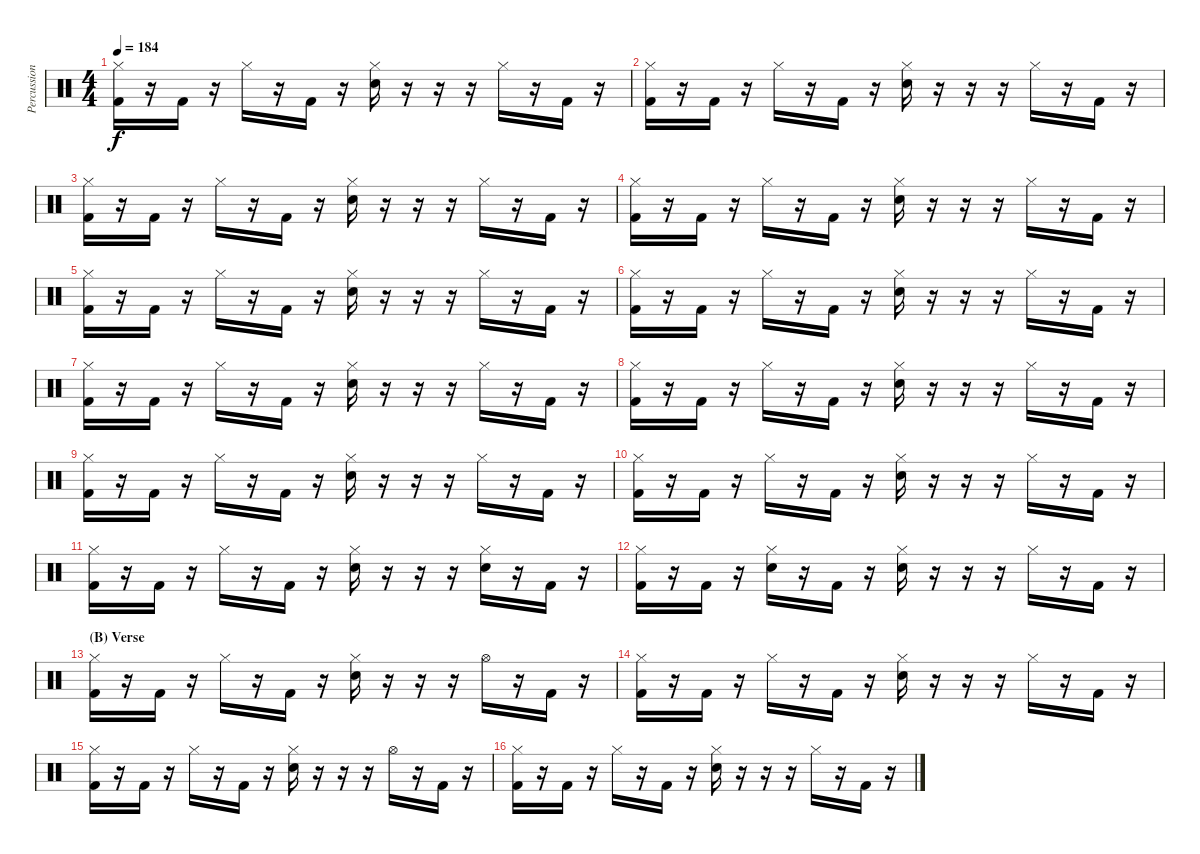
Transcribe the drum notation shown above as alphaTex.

\track ("Percussion" "Percussion") {instrument percussion}
\staff {score}
\articulation defaults
\ts (4 4)
\tempo 184
\clef neutral
\ks c
("Hi-Hat (closed)" "Kick (hit) 2").16{dy f} r.16 "Kick (hit) 2".16 r.16 "Hi-Hat (closed)".16 r.16 "Kick (hit) 2".16 r.16 ("Hi-Hat (closed)" "Electric Snare (hit)").16 r.16 r.16 r.16 "Hi-Hat (closed)".16 r.16 "Kick (hit) 2".16 r.16 |
("Hi-Hat (closed)" "Kick (hit) 2").16 r.16 "Kick (hit) 2".16 r.16 "Hi-Hat (closed)".16 r.16 "Kick (hit) 2".16 r.16 ("Hi-Hat (closed)" "Electric Snare (hit)").16 r.16 r.16 r.16 "Hi-Hat (closed)".16 r.16 "Kick (hit) 2".16 r.16 |
("Hi-Hat (closed)" "Kick (hit) 2").16 r.16 "Kick (hit) 2".16 r.16 "Hi-Hat (closed)".16 r.16 "Kick (hit) 2".16 r.16 ("Hi-Hat (closed)" "Electric Snare (hit)").16 r.16 r.16 r.16 "Hi-Hat (closed)".16 r.16 "Kick (hit) 2".16 r.16 |
("Hi-Hat (closed)" "Kick (hit) 2").16 r.16 "Kick (hit) 2".16 r.16 "Hi-Hat (closed)".16 r.16 "Kick (hit) 2".16 r.16 ("Hi-Hat (closed)" "Electric Snare (hit)").16 r.16 r.16 r.16 "Hi-Hat (closed)".16 r.16 "Kick (hit) 2".16 r.16 |
("Hi-Hat (closed)" "Kick (hit) 2").16 r.16 "Kick (hit) 2".16 r.16 "Hi-Hat (closed)".16 r.16 "Kick (hit) 2".16 r.16 ("Hi-Hat (closed)" "Electric Snare (hit)").16 r.16 r.16 r.16 "Hi-Hat (closed)".16 r.16 "Kick (hit) 2".16 r.16 |
("Hi-Hat (closed)" "Kick (hit) 2").16 r.16 "Kick (hit) 2".16 r.16 "Hi-Hat (closed)".16 r.16 "Kick (hit) 2".16 r.16 ("Hi-Hat (closed)" "Electric Snare (hit)").16 r.16 r.16 r.16 "Hi-Hat (closed)".16 r.16 "Kick (hit) 2".16 r.16 |
("Hi-Hat (closed)" "Kick (hit) 2").16 r.16 "Kick (hit) 2".16 r.16 "Hi-Hat (closed)".16 r.16 "Kick (hit) 2".16 r.16 ("Hi-Hat (closed)" "Electric Snare (hit)").16 r.16 r.16 r.16 "Hi-Hat (closed)".16 r.16 "Kick (hit) 2".16 r.16 |
("Hi-Hat (closed)" "Kick (hit) 2").16 r.16 "Kick (hit) 2".16 r.16 "Hi-Hat (closed)".16 r.16 "Kick (hit) 2".16 r.16 ("Hi-Hat (closed)" "Electric Snare (hit)").16 r.16 r.16 r.16 "Hi-Hat (closed)".16 r.16 "Kick (hit) 2".16 r.16 |
("Hi-Hat (closed)" "Kick (hit) 2").16 r.16 "Kick (hit) 2".16 r.16 "Hi-Hat (closed)".16 r.16 "Kick (hit) 2".16 r.16 ("Hi-Hat (closed)" "Electric Snare (hit)").16 r.16 r.16 r.16 "Hi-Hat (closed)".16 r.16 "Kick (hit) 2".16 r.16 |
("Hi-Hat (closed)" "Kick (hit) 2").16 r.16 "Kick (hit) 2".16 r.16 "Hi-Hat (closed)".16 r.16 "Kick (hit) 2".16 r.16 ("Hi-Hat (closed)" "Electric Snare (hit)").16 r.16 r.16 r.16 "Hi-Hat (closed)".16 r.16 "Kick (hit) 2".16 r.16 |
("Hi-Hat (closed)" "Kick (hit) 2").16 r.16 "Kick (hit) 2".16 r.16 "Hi-Hat (closed)".16 r.16 "Kick (hit) 2".16 r.16 ("Hi-Hat (closed)" "Electric Snare (hit)").16 r.16 r.16 r.16 ("Hi-Hat (closed)" "Electric Snare (hit)").16 r.16 "Kick (hit) 2".16 r.16 |
("Hi-Hat (closed)" "Kick (hit) 2").16 r.16 "Kick (hit) 2".16 r.16 ("Hi-Hat (closed)" "Electric Snare (hit)").16 r.16 "Kick (hit) 2".16 r.16 ("Hi-Hat (closed)" "Electric Snare (hit)").16 r.16 r.16 r.16 "Hi-Hat (closed)".16 r.16 "Kick (hit) 2".16 r.16 |
\section ("" "(B) Verse")
("Hi-Hat (closed)" "Kick (hit) 2").16 r.16 "Kick (hit) 2".16 r.16 "Hi-Hat (closed)".16 r.16 "Kick (hit) 2".16 r.16 ("Hi-Hat (closed)" "Electric Snare (hit)").16 r.16 r.16 r.16 "Hi-Hat (open)".16 r.16 "Kick (hit) 2".16 r.16 |
("Hi-Hat (closed)" "Kick (hit) 2").16 r.16 "Kick (hit) 2".16 r.16 "Hi-Hat (closed)".16 r.16 "Kick (hit) 2".16 r.16 ("Hi-Hat (closed)" "Electric Snare (hit)").16 r.16 r.16 r.16 "Hi-Hat (closed)".16 r.16 "Kick (hit) 2".16 r.16 |
("Hi-Hat (closed)" "Kick (hit) 2").16 r.16 "Kick (hit) 2".16 r.16 "Hi-Hat (closed)".16 r.16 "Kick (hit) 2".16 r.16 ("Hi-Hat (closed)" "Electric Snare (hit)").16 r.16 r.16 r.16 "Hi-Hat (open)".16 r.16 "Kick (hit) 2".16 r.16 |
("Hi-Hat (closed)" "Kick (hit) 2").16 r.16 "Kick (hit) 2".16 r.16 "Hi-Hat (closed)".16 r.16 "Kick (hit) 2".16 r.16 ("Hi-Hat (closed)" "Electric Snare (hit)").16 r.16 r.16 r.16 "Hi-Hat (closed)".16 r.16 "Kick (hit) 2".16 r.16
